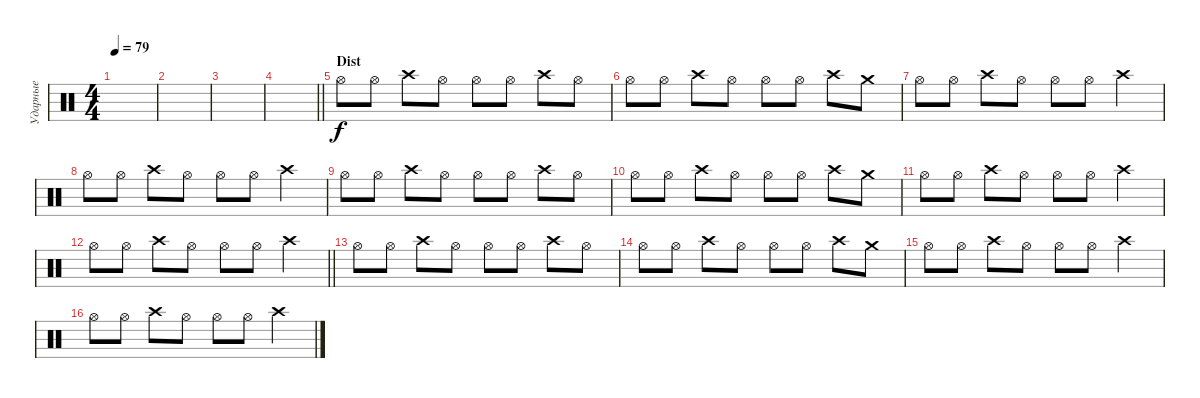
\track ("Ударные" "Ударные") {instrument percussion}
\staff {score}
\articulation defaults
\ts (4 4)
\tempo 79
\clef neutral
\ks c
|
|
|
\barLineRight lightlight
|
\section ("" "Dist")
"Hi-Hat (open)".8 "Hi-Hat (open)".8 "Crash high (hit)".8 "Hi-Hat (open)".8 "Hi-Hat (open)".8 "Hi-Hat (open)".8 "Crash high (hit)".8 "Hi-Hat (open)".8 |
"Hi-Hat (open)".8 "Hi-Hat (open)".8 "Crash high (hit)".8 "Hi-Hat (open)".8 "Hi-Hat (open)".8 "Hi-Hat (open)".8 "Crash high (hit)".8 "Crash medium (hit)".8 |
"Hi-Hat (open)".8 "Hi-Hat (open)".8 "Crash high (hit)".8 "Hi-Hat (open)".8 "Hi-Hat (open)".8 "Hi-Hat (open)".8 "Crash high (hit)".4 |
"Hi-Hat (open)".8 "Hi-Hat (open)".8 "Crash high (hit)".8 "Hi-Hat (open)".8 "Hi-Hat (open)".8 "Hi-Hat (open)".8 "Crash high (hit)".4 |
"Hi-Hat (open)".8 "Hi-Hat (open)".8 "Crash high (hit)".8 "Hi-Hat (open)".8 "Hi-Hat (open)".8 "Hi-Hat (open)".8 "Crash high (hit)".8 "Hi-Hat (open)".8 |
"Hi-Hat (open)".8 "Hi-Hat (open)".8 "Crash high (hit)".8 "Hi-Hat (open)".8 "Hi-Hat (open)".8 "Hi-Hat (open)".8 "Crash high (hit)".8 "Crash medium (hit)".8 |
"Hi-Hat (open)".8 "Hi-Hat (open)".8 "Crash high (hit)".8 "Hi-Hat (open)".8 "Hi-Hat (open)".8 "Hi-Hat (open)".8 "Crash high (hit)".4 |
\barLineRight lightlight "Hi-Hat (open)".8 "Hi-Hat (open)".8 "Crash high (hit)".8 "Hi-Hat (open)".8 "Hi-Hat (open)".8 "Hi-Hat (open)".8 "Crash high (hit)".4
|
"Hi-Hat (open)".8 "Hi-Hat (open)".8 "Crash high (hit)".8 "Hi-Hat (open)".8 "Hi-Hat (open)".8 "Hi-Hat (open)".8 "Crash high (hit)".8 "Hi-Hat (open)".8 |
"Hi-Hat (open)".8 "Hi-Hat (open)".8 "Crash high (hit)".8 "Hi-Hat (open)".8 "Hi-Hat (open)".8 "Hi-Hat (open)".8 "Crash high (hit)".8 "Crash medium (hit)".8 |
"Hi-Hat (open)".8 "Hi-Hat (open)".8 "Crash high (hit)".8 "Hi-Hat (open)".8 "Hi-Hat (open)".8 "Hi-Hat (open)".8 "Crash high (hit)".4 |
"Hi-Hat (open)".8 "Hi-Hat (open)".8 "Crash high (hit)".8 "Hi-Hat (open)".8 "Hi-Hat (open)".8 "Hi-Hat (open)".8 "Crash high (hit)".4
